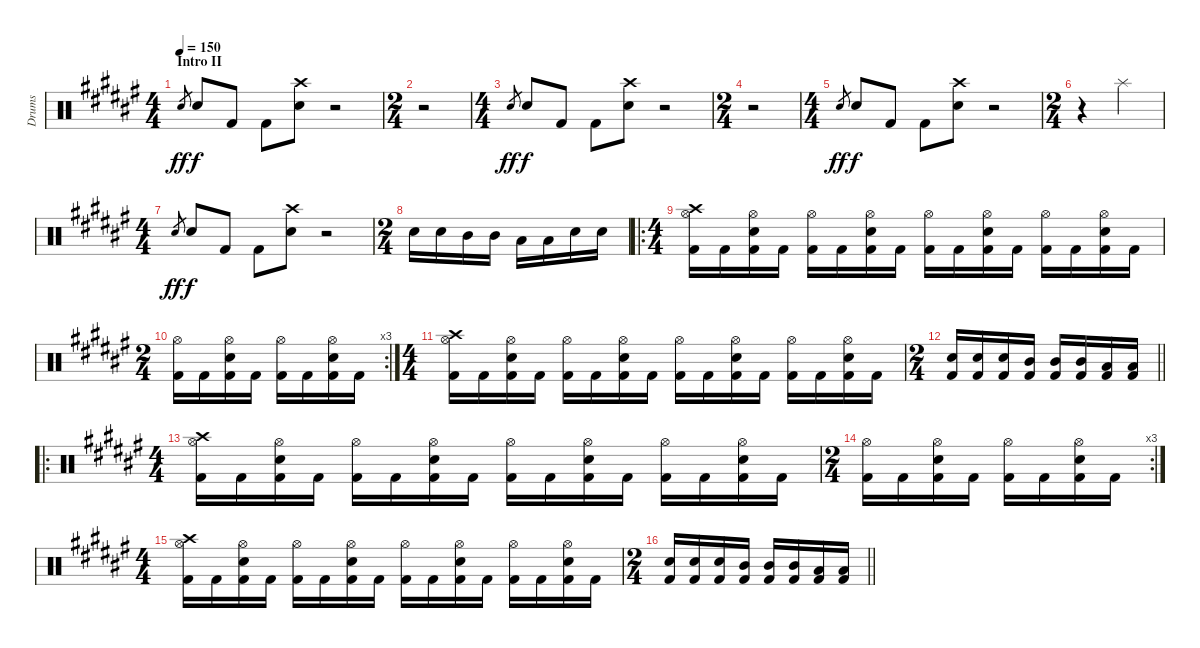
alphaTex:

\track ("Drums" "Drums") {instrument percussion}
\staff {score}
\articulation defaults
\ts (4 4)
\section ("" "Intro II")
\tempo 150
\clef neutral
\ks d#minor "Electric Snare (hit)".8{gr dy ff} "Electric Snare (hit)".8{dy f} "Kick (hit) 2".8 "Kick (hit) 2".8
("Electric Snare (hit)" "Crash high (hit)").8 r.2 |
\ts (2 4)
r.2 |
\ts (4 4)
"Electric Snare (hit)".8{gr dy ff} "Electric Snare (hit)".8{dy f} "Kick (hit) 2".8 "Kick (hit) 2".8 ("Electric Snare (hit)" "Crash high (hit)").8 r.2 |
\ts (2 4)
r.2 |
\ts (4 4)
"Electric Snare (hit)".8{gr dy ff} "Electric Snare (hit)".8{dy f} "Kick (hit) 2".8 "Kick (hit) 2".8 ("Electric Snare (hit)" "Crash high (hit)").8 r.2 |
\ts (2 4)
r.4 "Splash (hit)".4 |
\ts (4 4)
"Electric Snare (hit)".8{gr dy ff} "Electric Snare (hit)".8{dy f} "Kick (hit) 2".8 "Kick (hit) 2".8 ("Electric Snare (hit)" "Crash high (hit)").8 r.2 |
\ts (2 4)
"Electric Snare (hit)".16 "Electric Snare (hit)".16 "Mid Tom (hit)".16 "Mid Tom (hit)".16 "Low Floor Tom (hit)".16 "Low Floor Tom (hit)".16 "Electric Snare (hit)".16 "Electric Snare (hit)".16 |
\ro
\ts (4 4)
("Kick (hit) 2" "Hi-Hat (open)" "Crash high (hit)").16 "Kick (hit) 2".16 ("Kick (hit) 2" "Electric Snare (hit)" "Hi-Hat (open)").16 "Kick (hit) 2".16 ("Kick (hit) 2" "Hi-Hat (open)").16 "Kick (hit) 2".16 ("Kick (hit) 2" "Electric Snare (hit)" "Hi-Hat (open)").16 "Kick (hit) 2".16 ("Kick (hit) 2" "Hi-Hat (open)").16 "Kick (hit) 2".16 ("Kick (hit) 2" "Electric Snare (hit)" "Hi-Hat (open)").16 "Kick (hit) 2".16 ("Kick (hit) 2" "Hi-Hat (open)").16 "Kick (hit) 2".16 ("Kick (hit) 2" "Electric Snare (hit)" "Hi-Hat (open)").16 "Kick (hit) 2".16 |
\rc 3
\ts (2 4)
("Kick (hit) 2" "Hi-Hat (open)").16 "Kick (hit) 2".16 ("Kick (hit) 2" "Electric Snare (hit)" "Hi-Hat (open)").16 "Kick (hit) 2".16 ("Kick (hit) 2" "Hi-Hat (open)").16 "Kick (hit) 2".16 ("Kick (hit) 2" "Electric Snare (hit)" "Hi-Hat (open)").16 "Kick (hit) 2".16 |
\ts (4 4)
("Kick (hit) 2" "Hi-Hat (open)" "Crash high (hit)").16 "Kick (hit) 2".16 ("Kick (hit) 2" "Electric Snare (hit)" "Hi-Hat (open)").16 "Kick (hit) 2".16 ("Kick (hit) 2" "Hi-Hat (open)").16 "Kick (hit) 2".16 ("Kick (hit) 2" "Electric Snare (hit)" "Hi-Hat (open)").16 "Kick (hit) 2".16 ("Kick (hit) 2" "Hi-Hat (open)").16 "Kick (hit) 2".16 ("Kick (hit) 2" "Electric Snare (hit)" "Hi-Hat (open)").16 "Kick (hit) 2".16 ("Kick (hit) 2" "Hi-Hat (open)").16 "Kick (hit) 2".16 ("Kick (hit) 2" "Electric Snare (hit)" "Hi-Hat (open)").16 "Kick (hit) 2".16 |
\ts (2 4)
\barLineRight lightlight
("Kick (hit) 2" "Electric Snare (hit)").16 ("Kick (hit) 2" "Electric Snare (hit)").16 ("Kick (hit) 2" "Electric Snare (hit)").16 ("Kick (hit) 2" "Mid Tom (hit)").16 ("Kick (hit) 2" "Mid Tom (hit)").16 ("Kick (hit) 2" "Mid Tom (hit)").16 ("Kick (hit) 2" "Low Floor Tom (hit)").16 ("Kick (hit) 2" "Low Floor Tom (hit)").16 |
\ro
\ts (4 4)
("Kick (hit) 2" "Hi-Hat (open)" "Crash high (hit)").16 "Kick (hit) 2".16 ("Kick (hit) 2" "Electric Snare (hit)" "Hi-Hat (open)").16 "Kick (hit) 2".16 ("Kick (hit) 2" "Hi-Hat (open)").16 "Kick (hit) 2".16 ("Kick (hit) 2" "Electric Snare (hit)" "Hi-Hat (open)").16 "Kick (hit) 2".16 ("Kick (hit) 2" "Hi-Hat (open)").16 "Kick (hit) 2".16 ("Kick (hit) 2" "Electric Snare (hit)" "Hi-Hat (open)").16 "Kick (hit) 2".16 ("Kick (hit) 2" "Hi-Hat (open)").16 "Kick (hit) 2".16 ("Kick (hit) 2" "Electric Snare (hit)" "Hi-Hat (open)").16 "Kick (hit) 2".16 |
\rc 3
\ts (2 4)
("Kick (hit) 2" "Hi-Hat (open)").16 "Kick (hit) 2".16 ("Kick (hit) 2" "Electric Snare (hit)" "Hi-Hat (open)").16 "Kick (hit) 2".16 ("Kick (hit) 2" "Hi-Hat (open)").16 "Kick (hit) 2".16 ("Kick (hit) 2" "Electric Snare (hit)" "Hi-Hat (open)").16 "Kick (hit) 2".16 |
\ts (4 4)
("Kick (hit) 2" "Hi-Hat (open)" "Crash high (hit)").16 "Kick (hit) 2".16 ("Kick (hit) 2" "Electric Snare (hit)" "Hi-Hat (open)").16 "Kick (hit) 2".16 ("Kick (hit) 2" "Hi-Hat (open)").16 "Kick (hit) 2".16 ("Kick (hit) 2" "Electric Snare (hit)" "Hi-Hat (open)").16 "Kick (hit) 2".16 ("Kick (hit) 2" "Hi-Hat (open)").16 "Kick (hit) 2".16 ("Kick (hit) 2" "Electric Snare (hit)" "Hi-Hat (open)").16 "Kick (hit) 2".16 ("Kick (hit) 2" "Hi-Hat (open)").16 "Kick (hit) 2".16 ("Kick (hit) 2" "Electric Snare (hit)" "Hi-Hat (open)").16 "Kick (hit) 2".16 |
\ts (2 4)
\barLineRight lightlight
("Kick (hit) 2" "Electric Snare (hit)").16 ("Kick (hit) 2" "Electric Snare (hit)").16 ("Kick (hit) 2" "Electric Snare (hit)").16 ("Kick (hit) 2" "Mid Tom (hit)").16 ("Kick (hit) 2" "Mid Tom (hit)").16 ("Kick (hit) 2" "Mid Tom (hit)").16 ("Kick (hit) 2" "Low Floor Tom (hit)").16 ("Kick (hit) 2" "Low Floor Tom (hit)").16
